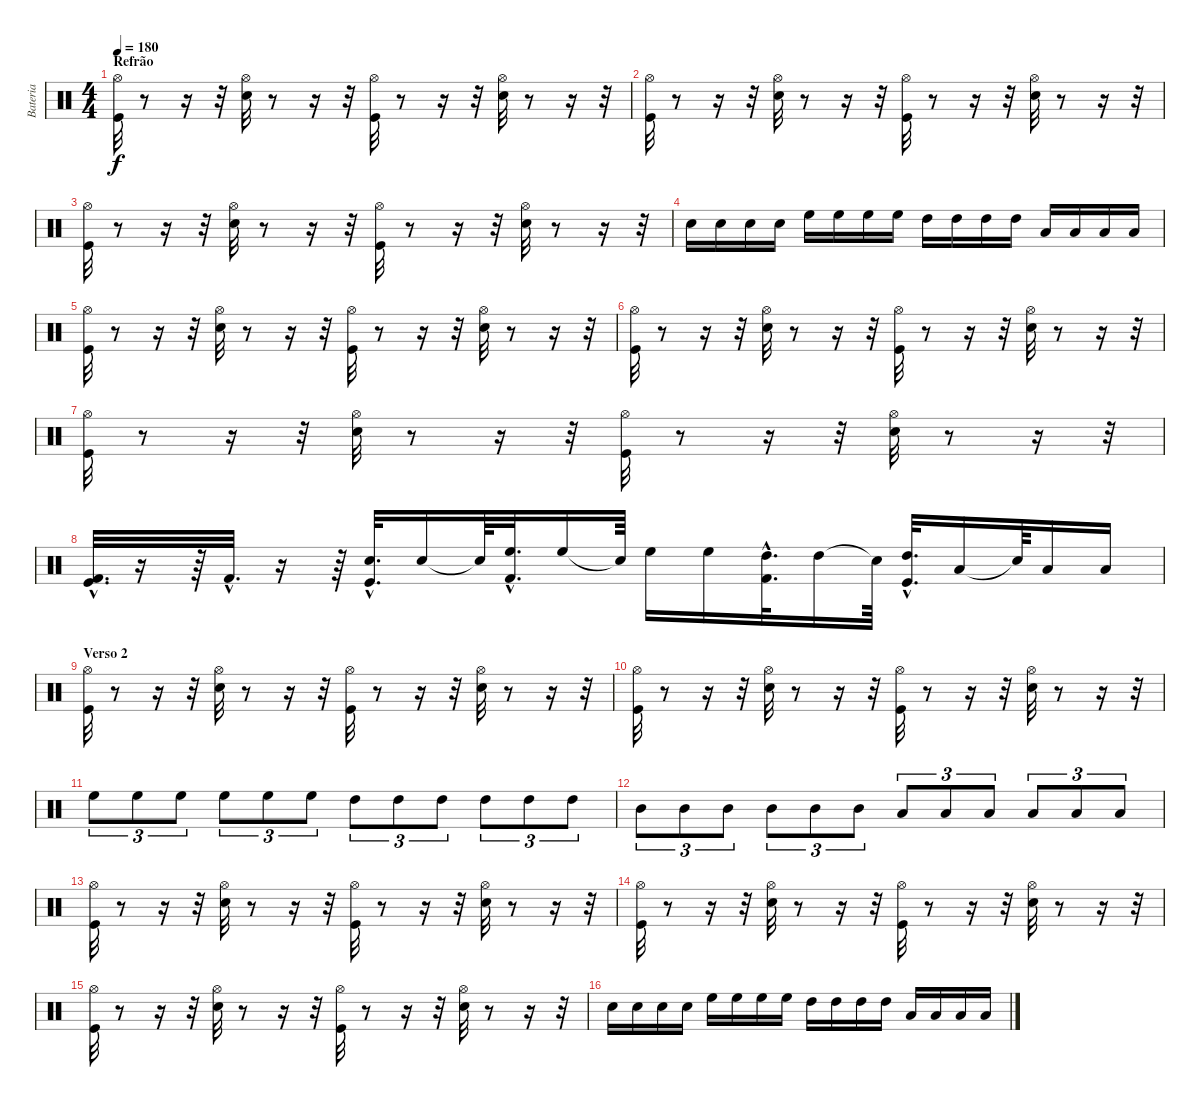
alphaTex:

\track ("Bateria" "Bateria") {instrument percussion}
\staff {score}
\articulation defaults
\ts (4 4)
\section ("" "Refrão")
\tempo 180
\clef neutral
\ks c
("Hi-Hat (open)" "Kick (hit)").32{dy f} r.8 r.16 r.32 ("Snare (hit) 2" "Hi-Hat (open)").32 r.8 r.16 r.32 ("Hi-Hat (open)" "Kick (hit)").32 r.8 r.16 r.32 ("Snare (hit) 2" "Hi-Hat (open)").32 r.8 r.16 r.32 |
("Hi-Hat (open)" "Kick (hit)").32 r.8 r.16 r.32 ("Snare (hit) 2" "Hi-Hat (open)").32 r.8 r.16 r.32 ("Hi-Hat (open)" "Kick (hit)").32 r.8 r.16 r.32 ("Snare (hit) 2" "Hi-Hat (open)").32 r.8 r.16 r.32 |
("Hi-Hat (open)" "Kick (hit)").32 r.8 r.16 r.32 ("Snare (hit) 2" "Hi-Hat (open)").32 r.8 r.16 r.32 ("Hi-Hat (open)" "Kick (hit)").32 r.8 r.16 r.32 ("Snare (hit) 2" "Hi-Hat (open)").32 r.8 r.16 r.32 |
"Snare (hit) 2".16 "Snare (hit) 2".16 "Snare (hit) 2".16 "Snare (hit) 2".16 "High Floor Tom (hit)".16 "High Floor Tom (hit)".16 "High Floor Tom (hit)".16 "High Floor Tom (hit)".16 "High Tom (hit)".16 "High Tom (hit)".16 "High Tom (hit)".16 "High Tom (hit)".16 "Low Tom (hit)".16 "Low Tom (hit)".16 "Low Tom (hit)".16 "Low Tom (hit)".16 |
("Hi-Hat (open)" "Kick (hit)").32 r.8 r.16 r.32 ("Snare (hit) 2" "Hi-Hat (open)").32 r.8 r.16 r.32 ("Hi-Hat (open)" "Kick (hit)").32 r.8 r.16 r.32 ("Snare (hit) 2" "Hi-Hat (open)").32 r.8 r.16 r.32 |
("Hi-Hat (open)" "Kick (hit)").32 r.8 r.16 r.32 ("Snare (hit) 2" "Hi-Hat (open)").32 r.8 r.16 r.32 ("Hi-Hat (open)" "Kick (hit)").32 r.8 r.16 r.32 ("Snare (hit) 2" "Hi-Hat (open)").32 r.8 r.16 r.32 |
("Hi-Hat (open)" "Kick (hit)").32 r.8 r.16 r.32 ("Snare (hit) 2" "Hi-Hat (open)").32 r.8 r.16 r.32 ("Hi-Hat (open)" "Kick (hit)").32 r.8 r.16 r.32 ("Snare (hit) 2" "Hi-Hat (open)").32 r.8 r.16 r.32 |
("Kick (hit)"{hac} "Kick (hit) 2"{hac}).32{d} r.16 r.64 "Kick (hit) 2"{hac}.32{d} r.16 r.64 ("Snare (hit) 2"{hac} "Kick (hit)"{hac}).32{d} "Snare (hit) 2".16 "Snare (hit)"{t}.64 ("High Floor Tom (hit)"{hac} "Kick (hit) 2"{hac}).32{d} "High Floor Tom (hit)".16 "Snare (hit)"{t}.64 "High Floor Tom (hit)".16 "High Floor Tom (hit)".16 ("High Tom (hit)"{hac} "Kick (hit) 2"{hac}).32{d} "High Tom (hit)".16 "Snare (hit)"{t}.64 ("Kick (hit)"{hac} "High Tom (hit)"{hac}).32{d} "Low Tom (hit)".16 "Snare (hit)"{t}.64 "Low Tom (hit)".16 "Low Floor Tom (hit)".16 |
\section ("" "Verso 2")
("Hi-Hat (open)" "Kick (hit)").32 r.8 r.16 r.32 ("Snare (hit) 2" "Hi-Hat (open)").32 r.8 r.16 r.32 ("Hi-Hat (open)" "Kick (hit)").32 r.8 r.16 r.32 ("Snare (hit) 2" "Hi-Hat (open)").32 r.8 r.16 r.32 |
("Hi-Hat (open)" "Kick (hit)").32 r.8 r.16 r.32 ("Snare (hit) 2" "Hi-Hat (open)").32 r.8 r.16 r.32 ("Hi-Hat (open)" "Kick (hit)").32 r.8 r.16 r.32 ("Snare (hit) 2" "Hi-Hat (open)").32 r.8 r.16 r.32 |
"High Floor Tom (hit)".8{tu (3 2)} "High Floor Tom (hit)".8{tu (3 2)} "High Floor Tom (hit)".8{tu (3 2)} "High Floor Tom (hit)".8{tu (3 2)} "High Floor Tom (hit)".8{tu (3 2)} "High Floor Tom (hit)".8{tu (3 2)} "High Tom (hit)".8{tu (3 2)} "High Tom (hit)".8{tu (3 2)} "High Tom (hit)".8{tu (3 2)} "High Tom (hit)".8{tu (3 2)} "High Tom (hit)".8{tu (3 2)} "High Tom (hit)".8{tu (3 2)} |
"Mid Tom (hit)".8{tu (3 2)} "Mid Tom (hit)".8{tu (3 2)} "Mid Tom (hit)".8{tu (3 2)} "Mid Tom (hit)".8{tu (3 2)} "Mid Tom (hit)".8{tu (3 2)} "Mid Tom (hit)".8{tu (3 2)} "Low Tom (hit)".8{tu (3 2)} "Low Tom (hit)".8{tu (3 2)} "Low Tom (hit)".8{tu (3 2)} "Low Tom (hit)".8{tu (3 2)} "Low Tom (hit)".8{tu (3 2)} "Low Tom (hit)".8{tu (3 2)} |
("Hi-Hat (open)" "Kick (hit)").32 r.8 r.16 r.32 ("Snare (hit) 2" "Hi-Hat (open)").32 r.8 r.16 r.32 ("Hi-Hat (open)" "Kick (hit)").32 r.8 r.16 r.32 ("Snare (hit) 2" "Hi-Hat (open)").32 r.8 r.16 r.32 |
("Hi-Hat (open)" "Kick (hit)").32 r.8 r.16 r.32 ("Snare (hit) 2" "Hi-Hat (open)").32 r.8 r.16 r.32 ("Hi-Hat (open)" "Kick (hit)").32 r.8 r.16 r.32 ("Snare (hit) 2" "Hi-Hat (open)").32 r.8 r.16 r.32 |
("Hi-Hat (open)" "Kick (hit)").32 r.8 r.16 r.32 ("Snare (hit) 2" "Hi-Hat (open)").32 r.8 r.16 r.32 ("Hi-Hat (open)" "Kick (hit)").32 r.8 r.16 r.32 ("Snare (hit) 2" "Hi-Hat (open)").32 r.8 r.16 r.32 |
"Snare (hit) 2".16 "Snare (hit) 2".16 "Snare (hit) 2".16 "Snare (hit) 2".16 "High Floor Tom (hit)".16 "High Floor Tom (hit)".16 "High Floor Tom (hit)".16 "High Floor Tom (hit)".16 "High Tom (hit)".16 "High Tom (hit)".16 "High Tom (hit)".16 "High Tom (hit)".16 "Low Tom (hit)".16 "Low Tom (hit)".16 "Low Tom (hit)".16 "Low Tom (hit)".16
